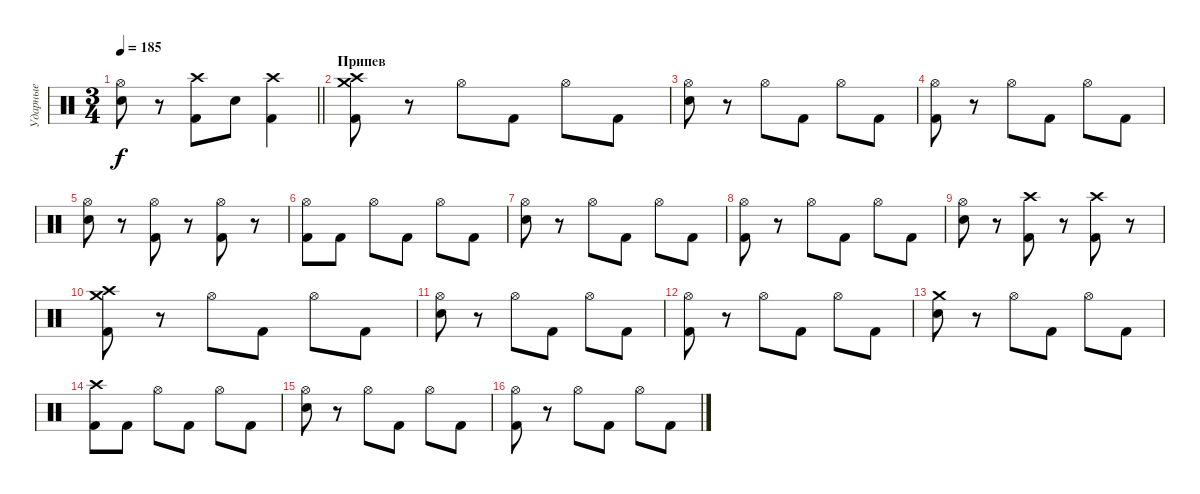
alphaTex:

\track ("Ударные" "Ударные") {instrument percussion}
\staff {score}
\articulation defaults
\ts (3 4)
\tempo 185
\clef neutral
\barLineRight lightlight
\ks c
("Hi-Hat (open)" "Snare (hit) 2").8{dy f} r.8 ("Crash high (hit)" "Kick (hit) 2").8 "Snare (hit) 2".8 ("Crash high (hit)" "Kick (hit) 2").4 |
\section ("" "Припев")
("Crash high (hit)" "Crash medium (hit)" "Kick (hit) 2").8 r.8 "Hi-Hat (open)".8 "Kick (hit) 2".8 "Hi-Hat (open)".8 "Kick (hit) 2".8 |
("Hi-Hat (open)" "Snare (hit) 2").8 r.8 "Hi-Hat (open)".8 "Kick (hit) 2".8 "Hi-Hat (open)".8 "Kick (hit) 2".8 |
("Hi-Hat (open)" "Kick (hit) 2").8 r.8 "Hi-Hat (open)".8 "Kick (hit) 2".8 "Hi-Hat (open)".8 "Kick (hit) 2".8 |
("Hi-Hat (open)" "Snare (hit) 2").8 r.8 ("Hi-Hat (open)" "Kick (hit) 2").8 r.8 ("Hi-Hat (open)" "Kick (hit) 2").8 r.8 |
("Hi-Hat (open)" "Kick (hit) 2").8 "Kick (hit) 2".8 "Hi-Hat (open)".8 "Kick (hit) 2".8 "Hi-Hat (open)".8 "Kick (hit) 2".8 |
("Hi-Hat (open)" "Snare (hit) 2").8 r.8 "Hi-Hat (open)".8 "Kick (hit) 2".8 "Hi-Hat (open)".8 "Kick (hit) 2".8 |
("Hi-Hat (open)" "Kick (hit) 2").8 r.8 "Hi-Hat (open)".8 "Kick (hit) 2".8 "Hi-Hat (open)".8 "Kick (hit) 2".8 |
("Hi-Hat (open)" "Snare (hit) 2").8 r.8 ("Crash high (hit)" "Kick (hit) 2").8 r.8 ("Crash high (hit)" "Kick (hit) 2").8 r.8 |
("Crash high (hit)" "Crash medium (hit)" "Kick (hit) 2").8 r.8 "Hi-Hat (open)".8 "Kick (hit) 2".8 "Hi-Hat (open)".8 "Kick (hit) 2".8 |
("Hi-Hat (open)" "Snare (hit) 2").8 r.8 "Hi-Hat (open)".8 "Kick (hit) 2".8 "Hi-Hat (open)".8 "Kick (hit) 2".8 |
("Hi-Hat (open)" "Kick (hit) 2").8 r.8 "Hi-Hat (open)".8 "Kick (hit) 2".8 "Hi-Hat (open)".8 "Kick (hit) 2".8 |
("Crash medium (hit)" "Snare (hit) 2").8 r.8 "Hi-Hat (open)".8 "Kick (hit) 2".8 "Hi-Hat (open)".8 "Kick (hit) 2".8 |
("Crash high (hit)" "Kick (hit) 2").8 "Kick (hit) 2".8 "Hi-Hat (open)".8 "Kick (hit) 2".8 "Hi-Hat (open)".8 "Kick (hit) 2".8 |
("Hi-Hat (open)" "Snare (hit) 2").8 r.8 "Hi-Hat (open)".8 "Kick (hit) 2".8 "Hi-Hat (open)".8 "Kick (hit) 2".8 |
("Hi-Hat (open)" "Kick (hit) 2").8 r.8 "Hi-Hat (open)".8 "Kick (hit) 2".8 "Hi-Hat (open)".8 "Kick (hit) 2".8
